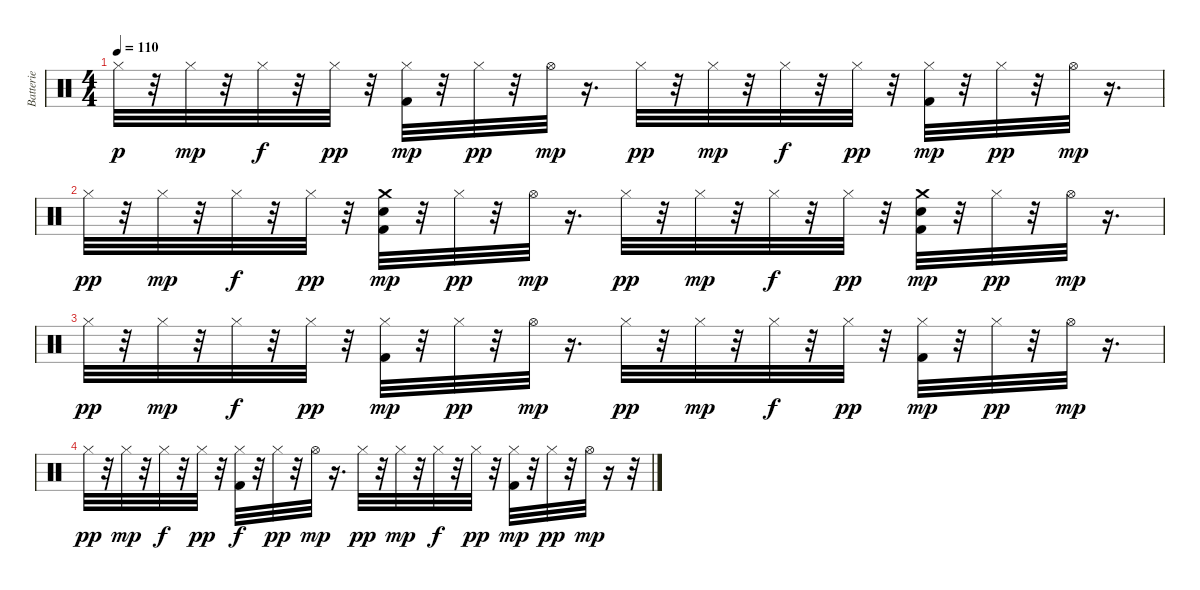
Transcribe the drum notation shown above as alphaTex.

\track ("Batterie" "Batterie") {instrument percussion}
\staff {score}
\articulation defaults
\ts (4 4)
\tempo 110
\clef neutral
\ks c "Hi-Hat (closed)".32{dy p}
r.32 "Hi-Hat (closed)".32{dy mp} r.32 "Hi-Hat (closed)".32{dy f} r.32 "Hi-Hat (closed)".32{dy pp} r.32 ("Kick (hit) 2" "Hi-Hat (closed)").32{dy mp} r.32 "Hi-Hat (closed)".32{dy pp} r.32 "Hi-Hat (open)".32{dy mp} r.16{d} "Hi-Hat (closed)".32{dy pp} r.32 "Hi-Hat (closed)".32{dy mp} r.32 "Hi-Hat (closed)".32{dy f} r.32 "Hi-Hat (closed)".32{dy pp} r.32 ("Kick (hit) 2" "Hi-Hat (closed)").32{dy mp} r.32 "Hi-Hat (closed)".32{dy pp} r.32 "Hi-Hat (open)".32{dy mp} r.16{d} |
"Hi-Hat (closed)".32{dy pp} r.32 "Hi-Hat (closed)".32{dy mp} r.32 "Hi-Hat (closed)".32{dy f} r.32 "Hi-Hat (closed)".32{dy pp} r.32 ("Kick (hit) 2" "Electric Snare (hit)" "Crash medium (hit)").32{dy mp} r.32 "Hi-Hat (closed)".32{dy pp} r.32 "Hi-Hat (open)".32{dy mp} r.16{d} "Hi-Hat (closed)".32{dy pp} r.32 "Hi-Hat (closed)".32{dy mp} r.32 "Hi-Hat (closed)".32{dy f} r.32 "Hi-Hat (closed)".32{dy pp} r.32 ("Kick (hit) 2" "Electric Snare (hit)" "Crash medium (hit)").32{dy mp} r.32 "Hi-Hat (closed)".32{dy pp} r.32 "Hi-Hat (open)".32{dy mp} r.16{d} |
"Hi-Hat (closed)".32{dy pp} r.32 "Hi-Hat (closed)".32{dy mp} r.32 "Hi-Hat (closed)".32{dy f} r.32 "Hi-Hat (closed)".32{dy pp} r.32 ("Kick (hit) 2" "Hi-Hat (closed)").32{dy mp} r.32 "Hi-Hat (closed)".32{dy pp} r.32 "Hi-Hat (open)".32{dy mp} r.16{d} "Hi-Hat (closed)".32{dy pp} r.32 "Hi-Hat (closed)".32{dy mp} r.32 "Hi-Hat (closed)".32{dy f} r.32 "Hi-Hat (closed)".32{dy pp} r.32 ("Kick (hit) 2" "Hi-Hat (closed)").32{dy mp} r.32 "Hi-Hat (closed)".32{dy pp} r.32 "Hi-Hat (open)".32{dy mp} r.16{d} |
"Hi-Hat (closed)".32{dy pp} r.32 "Hi-Hat (closed)".32{dy mp} r.32 "Hi-Hat (closed)".32{dy f} r.32 "Hi-Hat (closed)".32{dy pp} r.32 ("Kick (hit) 2" "Hi-Hat (closed)").32{dy f} r.32 "Hi-Hat (closed)".32{dy pp} r.32 "Hi-Hat (open)".32{dy mp} r.16{d} "Hi-Hat (closed)".32{dy pp} r.32 "Hi-Hat (closed)".32{dy mp} r.32 "Hi-Hat (closed)".32{dy f} r.32 "Hi-Hat (closed)".32{dy pp} r.32 ("Kick (hit) 2" "Hi-Hat (closed)").32{dy mp} r.32 "Hi-Hat (closed)".32{dy pp} r.32 "Hi-Hat (open)".32{dy mp} r.16 r.32
